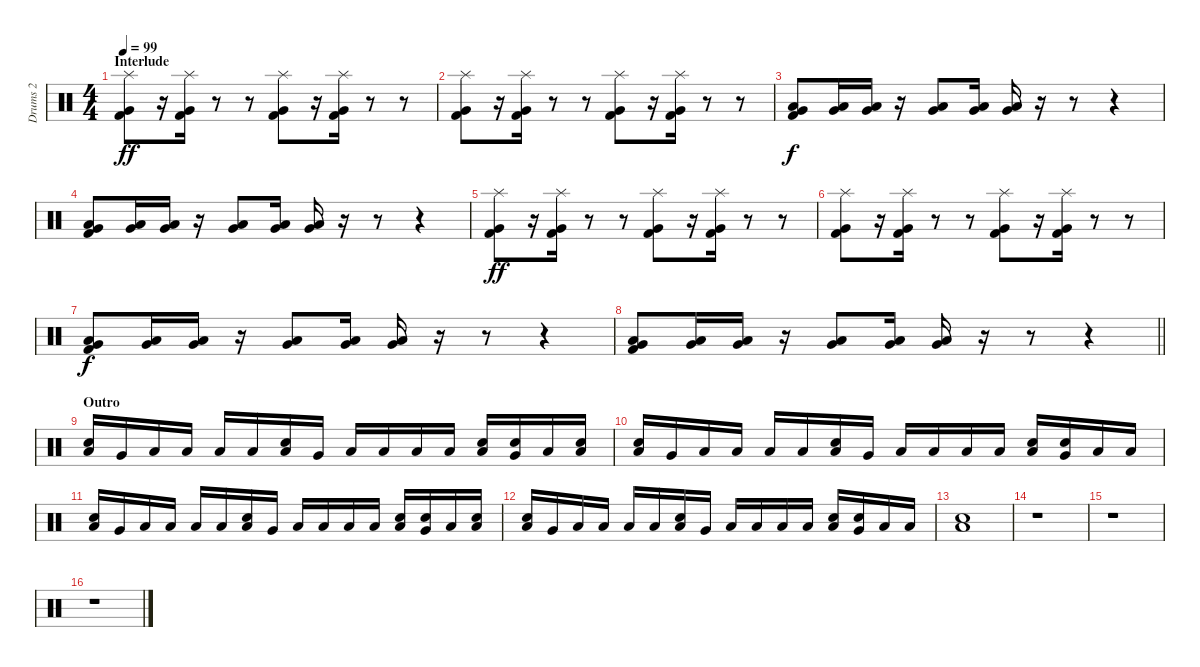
\track ("Drums 2" "Drums 2") {instrument percussion}
\staff {score}
\articulation defaults
\ts (4 4)
\section ("" "Interlude")
\tempo 99
\clef neutral
\ks c
("Splash (hit)" "Very Low Tom (hit)" "Kick (hit) 2").8{dy ff} r.16 ("Splash (hit)" "Very Low Tom (hit)" "Kick (hit) 2").16 r.8 r.8 ("Splash (hit)" "Very Low Tom (hit)" "Kick (hit) 2").8 r.16 ("Splash (hit)" "Very Low Tom (hit)" "Kick (hit) 2").16 r.8 r.8 |
("Splash (hit)" "Very Low Tom (hit)" "Kick (hit) 2").8 r.16 ("Splash (hit)" "Very Low Tom (hit)" "Kick (hit) 2").16 r.8 r.8 ("Splash (hit)" "Very Low Tom (hit)" "Kick (hit) 2").8 r.16 ("Splash (hit)" "Very Low Tom (hit)" "Kick (hit) 2").16 r.8 r.8 |
("Very Low Tom (hit)" "Low Floor Tom (hit)" "Kick (hit) 2").8{dy f} ("Very Low Tom (hit)" "Low Floor Tom (hit)").16 ("Very Low Tom (hit)" "Low Floor Tom (hit)").16 r.16 ("Very Low Tom (hit)" "Low Floor Tom (hit)").8 ("Very Low Tom (hit)" "Low Floor Tom (hit)").16 ("Very Low Tom (hit)" "Low Floor Tom (hit)").16 r.16 r.8 r.4 |
("Very Low Tom (hit)" "Low Floor Tom (hit)" "Kick (hit) 2").8 ("Very Low Tom (hit)" "Low Floor Tom (hit)").16 ("Very Low Tom (hit)" "Low Floor Tom (hit)").16 r.16 ("Very Low Tom (hit)" "Low Floor Tom (hit)").8 ("Very Low Tom (hit)" "Low Floor Tom (hit)").16 ("Very Low Tom (hit)" "Low Floor Tom (hit)").16 r.16 r.8 r.4 |
("Splash (hit)" "Very Low Tom (hit)" "Kick (hit) 2").8{dy ff} r.16 ("Splash (hit)" "Very Low Tom (hit)" "Kick (hit) 2").16 r.8 r.8 ("Splash (hit)" "Very Low Tom (hit)" "Kick (hit) 2").8 r.16 ("Splash (hit)" "Very Low Tom (hit)" "Kick (hit) 2").16 r.8 r.8 |
("Splash (hit)" "Very Low Tom (hit)" "Kick (hit) 2").8 r.16 ("Splash (hit)" "Very Low Tom (hit)" "Kick (hit) 2").16 r.8 r.8 ("Splash (hit)" "Very Low Tom (hit)" "Kick (hit) 2").8 r.16 ("Splash (hit)" "Very Low Tom (hit)" "Kick (hit) 2").16 r.8 r.8 |
("Very Low Tom (hit)" "Low Floor Tom (hit)" "Kick (hit) 2").8{dy f} ("Very Low Tom (hit)" "Low Floor Tom (hit)").16 ("Very Low Tom (hit)" "Low Floor Tom (hit)").16 r.16 ("Very Low Tom (hit)" "Low Floor Tom (hit)").8 ("Very Low Tom (hit)" "Low Floor Tom (hit)").16 ("Very Low Tom (hit)" "Low Floor Tom (hit)").16 r.16 r.8 r.4 |
\barLineRight lightlight
("Very Low Tom (hit)" "Low Floor Tom (hit)" "Kick (hit) 2").8 ("Very Low Tom (hit)" "Low Floor Tom (hit)").16 ("Very Low Tom (hit)" "Low Floor Tom (hit)").16 r.16 ("Very Low Tom (hit)" "Low Floor Tom (hit)").8 ("Very Low Tom (hit)" "Low Floor Tom (hit)").16 ("Very Low Tom (hit)" "Low Floor Tom (hit)").16 r.16 r.8 r.4 |
\section ("" "Outro")
("Low Tom (hit)" "Electric Snare (hit)").16 "Very Low Tom (hit)".16 "Low Floor Tom (hit)".16 "Low Floor Tom (hit)".16 "Low Floor Tom (hit)".16 "Low Floor Tom (hit)".16 ("Low Tom (hit)" "Electric Snare (hit)").16 "Very Low Tom (hit)".16 "Low Floor Tom (hit)".16 "Low Floor Tom (hit)".16 "Low Floor Tom (hit)".16 "Low Floor Tom (hit)".16 ("Low Tom (hit)" "Electric Snare (hit)").16 ("Very Low Tom (hit)" "Electric Snare (hit)").16 "Low Floor Tom (hit)".16 ("Low Floor Tom (hit)" "Electric Snare (hit)").16 |
("Low Tom (hit)" "Electric Snare (hit)").16 "Very Low Tom (hit)".16 "Low Floor Tom (hit)".16 "Low Floor Tom (hit)".16 "Low Floor Tom (hit)".16 "Low Floor Tom (hit)".16 ("Low Tom (hit)" "Electric Snare (hit)").16 "Very Low Tom (hit)".16 "Low Floor Tom (hit)".16 "Low Floor Tom (hit)".16 "Low Floor Tom (hit)".16 "Low Floor Tom (hit)".16 ("Low Tom (hit)" "Electric Snare (hit)").16 ("Very Low Tom (hit)" "Electric Snare (hit)").16 "Low Floor Tom (hit)".16 "Low Floor Tom (hit)".16 |
("Low Tom (hit)" "Electric Snare (hit)").16 "Very Low Tom (hit)".16 "Low Floor Tom (hit)".16 "Low Floor Tom (hit)".16 "Low Floor Tom (hit)".16 "Low Floor Tom (hit)".16 ("Low Tom (hit)" "Electric Snare (hit)").16 "Very Low Tom (hit)".16 "Low Floor Tom (hit)".16 "Low Floor Tom (hit)".16 "Low Floor Tom (hit)".16 "Low Floor Tom (hit)".16 ("Low Tom (hit)" "Electric Snare (hit)").16 ("Very Low Tom (hit)" "Electric Snare (hit)").16 "Low Floor Tom (hit)".16 ("Low Floor Tom (hit)" "Electric Snare (hit)").16 |
("Low Tom (hit)" "Electric Snare (hit)").16 "Very Low Tom (hit)".16 "Low Floor Tom (hit)".16 "Low Floor Tom (hit)".16 "Low Floor Tom (hit)".16 "Low Floor Tom (hit)".16 ("Low Tom (hit)" "Electric Snare (hit)").16 "Very Low Tom (hit)".16 "Low Floor Tom (hit)".16 "Low Floor Tom (hit)".16 "Low Floor Tom (hit)".16 "Low Floor Tom (hit)".16 ("Low Tom (hit)" "Electric Snare (hit)").16 ("Very Low Tom (hit)" "Electric Snare (hit)").16 "Low Floor Tom (hit)".16 "Low Floor Tom (hit)".16 |
("Low Floor Tom (hit)" "Electric Snare (hit)").1 |
r.1 |
r.1 |
r.1
